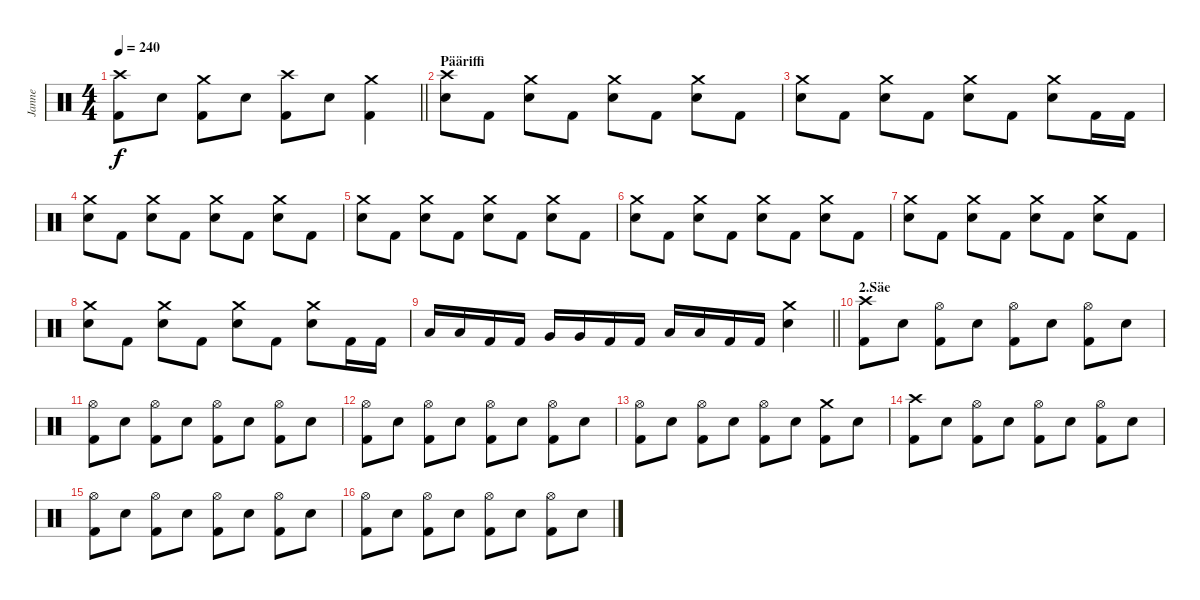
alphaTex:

\track ("Janne" "Janne") {instrument percussion}
\staff {score}
\articulation defaults
\ts (4 4)
\tempo 240
\clef neutral
\barLineRight lightlight
\ks c
("Crash high (hit)" "Kick (hit) 2").8{dy f} "Electric Snare (hit)".8 ("Crash medium (hit)" "Kick (hit) 2").8 "Electric Snare (hit)".8 ("Crash high (hit)" "Kick (hit) 2").8 "Electric Snare (hit)".8 ("Crash medium (hit)" "Kick (hit) 2").4 |
\section ("" "Pääriffi")
("Crash high (hit)" "Electric Snare (hit)").8 "Kick (hit) 2".8 ("Crash medium (hit)" "Electric Snare (hit)").8 "Kick (hit) 2".8 ("Crash medium (hit)" "Electric Snare (hit)").8 "Kick (hit) 2".8 ("Crash medium (hit)" "Electric Snare (hit)").8 "Kick (hit) 2".8 |
("Crash medium (hit)" "Electric Snare (hit)").8 "Kick (hit) 2".8 ("Crash medium (hit)" "Electric Snare (hit)").8 "Kick (hit) 2".8 ("Crash medium (hit)" "Electric Snare (hit)").8 "Kick (hit) 2".8 ("Crash medium (hit)" "Electric Snare (hit)").8 "Kick (hit) 2".16 "Kick (hit) 2".16 |
("Crash medium (hit)" "Electric Snare (hit)").8 "Kick (hit) 2".8 ("Crash medium (hit)" "Electric Snare (hit)").8 "Kick (hit) 2".8 ("Crash medium (hit)" "Electric Snare (hit)").8 "Kick (hit) 2".8 ("Crash medium (hit)" "Electric Snare (hit)").8 "Kick (hit) 2".8 |
("Crash medium (hit)" "Electric Snare (hit)").8 "Kick (hit) 2".8 ("Crash medium (hit)" "Electric Snare (hit)").8 "Kick (hit) 2".8 ("Crash medium (hit)" "Electric Snare (hit)").8 "Kick (hit) 2".8 ("Crash medium (hit)" "Electric Snare (hit)").8 "Kick (hit) 2".8 |
("Crash medium (hit)" "Electric Snare (hit)").8 "Kick (hit) 2".8 ("Crash medium (hit)" "Electric Snare (hit)").8 "Kick (hit) 2".8 ("Crash medium (hit)" "Electric Snare (hit)").8 "Kick (hit) 2".8 ("Crash medium (hit)" "Electric Snare (hit)").8 "Kick (hit) 2".8 |
("Crash medium (hit)" "Electric Snare (hit)").8 "Kick (hit) 2".8 ("Crash medium (hit)" "Electric Snare (hit)").8 "Kick (hit) 2".8 ("Crash medium (hit)" "Electric Snare (hit)").8 "Kick (hit) 2".8 ("Crash medium (hit)" "Electric Snare (hit)").8 "Kick (hit) 2".8 |
("Crash medium (hit)" "Electric Snare (hit)").8 "Kick (hit) 2".8 ("Crash medium (hit)" "Electric Snare (hit)").8 "Kick (hit) 2".8 ("Crash medium (hit)" "Electric Snare (hit)").8 "Kick (hit) 2".8 ("Crash medium (hit)" "Electric Snare (hit)").8 "Kick (hit) 2".16 "Kick (hit) 2".16 |
\barLineRight lightlight "Low Tom (hit)".16 "Low Tom (hit)".16 "Kick (hit) 2".16 "Kick (hit) 2".16 "Very Low Tom (hit)".16 "Very Low Tom (hit)".16 "Kick (hit) 2".16 "Kick (hit) 2".16 "Low Floor Tom (hit)".16 "Low Floor Tom (hit)".16 "Kick (hit) 2".16 "Kick (hit) 2".16
("Crash medium (hit)" "Electric Snare (hit)").4 |
\section ("" "2.Säe")
("Crash high (hit)" "Kick (hit) 2").8 "Electric Snare (hit)".8 ("Hi-Hat (open)" "Kick (hit) 2").8 "Electric Snare (hit)".8 ("Hi-Hat (open)" "Kick (hit) 2").8 "Electric Snare (hit)".8 ("Hi-Hat (open)" "Kick (hit) 2").8 "Electric Snare (hit)".8 |
("Hi-Hat (open)" "Kick (hit) 2").8 "Electric Snare (hit)".8 ("Hi-Hat (open)" "Kick (hit) 2").8 "Electric Snare (hit)".8 ("Hi-Hat (open)" "Kick (hit) 2").8 "Electric Snare (hit)".8 ("Hi-Hat (open)" "Kick (hit) 2").8 "Electric Snare (hit)".8 |
("Hi-Hat (open)" "Kick (hit) 2").8 "Electric Snare (hit)".8 ("Hi-Hat (open)" "Kick (hit) 2").8 "Electric Snare (hit)".8 ("Hi-Hat (open)" "Kick (hit) 2").8 "Electric Snare (hit)".8 ("Hi-Hat (open)" "Kick (hit) 2").8 "Electric Snare (hit)".8 |
("Hi-Hat (open)" "Kick (hit) 2").8 "Electric Snare (hit)".8 ("Hi-Hat (open)" "Kick (hit) 2").8 "Electric Snare (hit)".8 ("Hi-Hat (open)" "Kick (hit) 2").8 "Electric Snare (hit)".8 ("Crash medium (hit)" "Kick (hit) 2").8 "Electric Snare (hit)".8 |
("Crash high (hit)" "Kick (hit) 2").8 "Electric Snare (hit)".8 ("Hi-Hat (open)" "Kick (hit) 2").8 "Electric Snare (hit)".8 ("Hi-Hat (open)" "Kick (hit) 2").8 "Electric Snare (hit)".8 ("Hi-Hat (open)" "Kick (hit) 2").8 "Electric Snare (hit)".8 |
("Hi-Hat (open)" "Kick (hit) 2").8 "Electric Snare (hit)".8 ("Hi-Hat (open)" "Kick (hit) 2").8 "Electric Snare (hit)".8 ("Hi-Hat (open)" "Kick (hit) 2").8 "Electric Snare (hit)".8 ("Hi-Hat (open)" "Kick (hit) 2").8 "Electric Snare (hit)".8 |
("Hi-Hat (open)" "Kick (hit) 2").8 "Electric Snare (hit)".8 ("Hi-Hat (open)" "Kick (hit) 2").8 "Electric Snare (hit)".8 ("Hi-Hat (open)" "Kick (hit) 2").8 "Electric Snare (hit)".8 ("Hi-Hat (open)" "Kick (hit) 2").8 "Electric Snare (hit)".8
